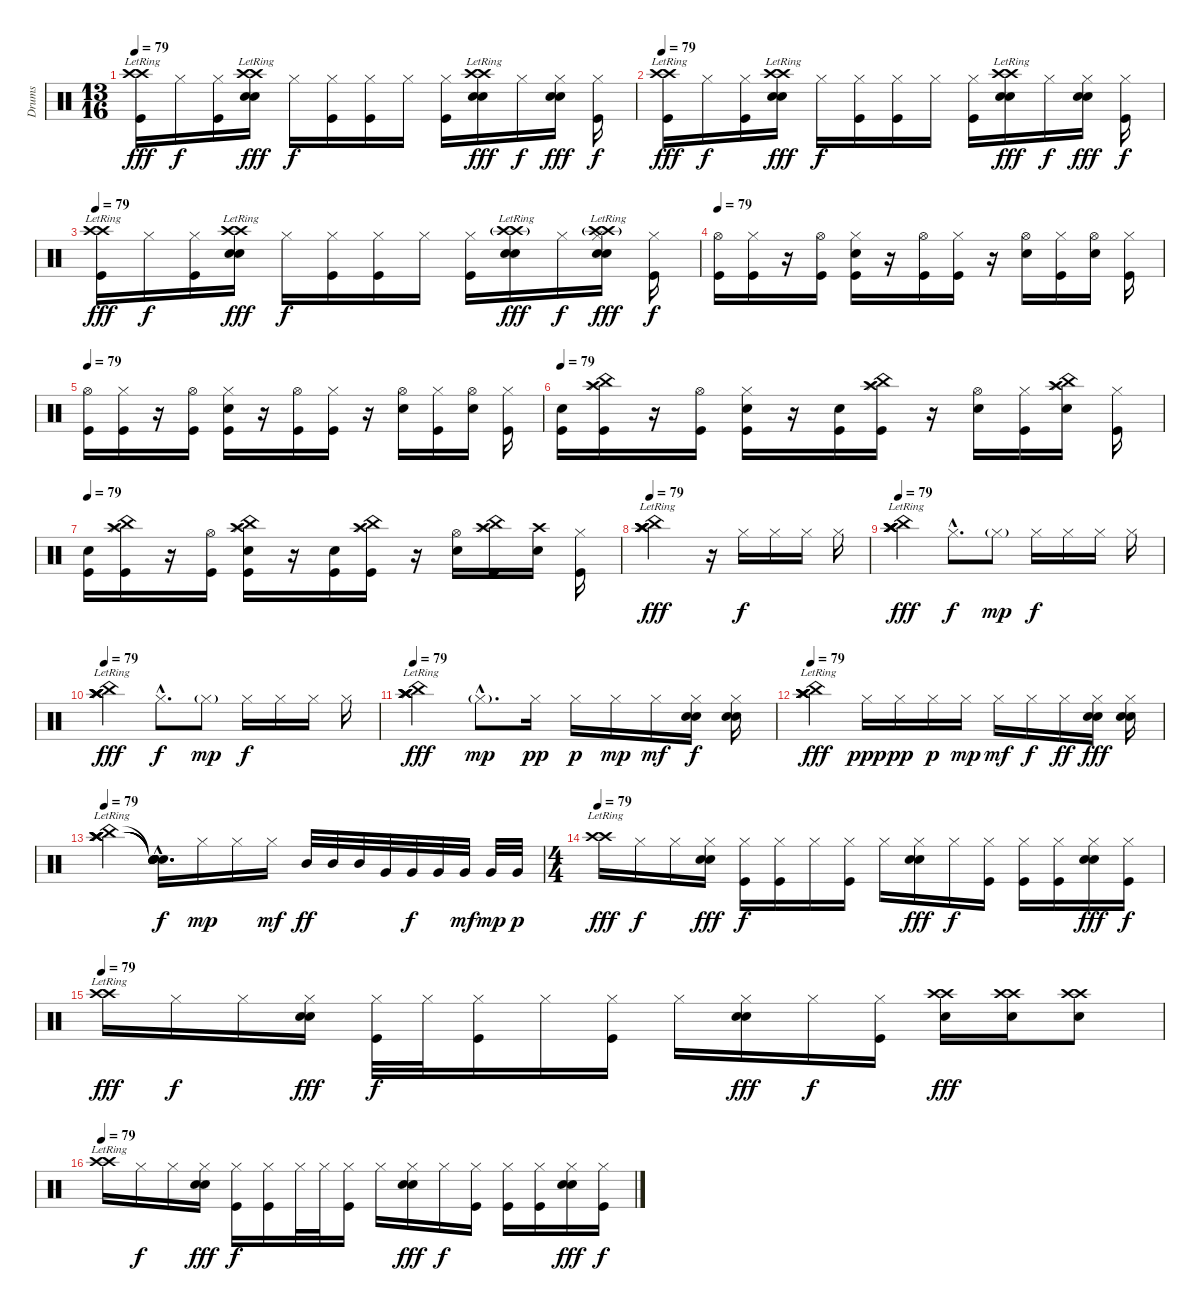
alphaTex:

\track ("Drums" "Drums") {instrument percussion}
\staff {score}
\articulation defaults
\ts (13 16)
\tempo 79
\clef neutral
\ks c
("Crash high (hit)"{lr} "Crash high (hit)"{lr} "Kick (hit)").16{dy fff volume 13} "Hi-Hat (closed)".16{dy f} ("Hi-Hat (closed)" "Kick (hit)").16 ("Crash high (hit)"{lr} "Crash high (hit)"{lr} "Electric Snare (hit)" "Electric Snare (hit)").16{dy fff} "Hi-Hat (closed)".16{dy f} ("Hi-Hat (closed)" "Kick (hit)").16 ("Hi-Hat (closed)" "Kick (hit)").16 "Hi-Hat (closed)".16 ("Hi-Hat (closed)" "Kick (hit)").16 ("Crash high (hit)"{lr} "Crash high (hit)"{lr} "Electric Snare (hit)" "Electric Snare (hit)").16{dy fff} "Hi-Hat (closed)".16{dy f} ("Hi-Hat (closed)" "Electric Snare (hit)" "Electric Snare (hit)").16{dy fff} ("Hi-Hat (closed)" "Kick (hit)").16{dy f} |
\tempo 79
("Crash high (hit)"{lr} "Crash high (hit)"{lr} "Kick (hit)").16{dy fff volume 13} "Hi-Hat (closed)".16{dy f} ("Hi-Hat (closed)" "Kick (hit)").16 ("Crash high (hit)"{lr} "Crash high (hit)"{lr} "Electric Snare (hit)" "Electric Snare (hit)").16{dy fff} "Hi-Hat (closed)".16{dy f} ("Hi-Hat (closed)" "Kick (hit)").16 ("Hi-Hat (closed)" "Kick (hit)").16 "Hi-Hat (closed)".16 ("Hi-Hat (closed)" "Kick (hit)").16 ("Crash high (hit)"{lr} "Crash high (hit)"{lr} "Electric Snare (hit)" "Electric Snare (hit)").16{dy fff} "Hi-Hat (closed)".16{dy f} ("Hi-Hat (closed)" "Electric Snare (hit)" "Electric Snare (hit)").16{dy fff} ("Hi-Hat (closed)" "Kick (hit)").16{dy f} |
\tempo 79
("Crash high (hit)"{lr} "Crash high (hit)"{lr} "Kick (hit)").16{dy fff volume 13} "Hi-Hat (closed)".16{dy f} ("Hi-Hat (closed)" "Kick (hit)").16 ("Crash high (hit)"{lr} "Crash high (hit)"{lr} "Electric Snare (hit)" "Electric Snare (hit)").16{dy fff} "Hi-Hat (closed)".16{dy f} ("Hi-Hat (closed)" "Kick (hit)").16 ("Hi-Hat (closed)" "Kick (hit)").16 "Hi-Hat (closed)".16 ("Hi-Hat (closed)" "Kick (hit)").16 ("Crash high (hit)"{g lr} "Crash high (hit)"{g lr} "Electric Snare (hit)" "Electric Snare (hit)").16{dy fff} "Hi-Hat (closed)".16{dy f} ("Crash high (hit)"{g lr} "Crash high (hit)"{g lr} "Hi-Hat (closed)" "Electric Snare (hit)" "Electric Snare (hit)").16{dy fff} ("Hi-Hat (closed)" "Kick (hit)").16{dy f} |
\tempo 79
("Hi-Hat (open)" "Kick (hit)").16 ("Hi-Hat (closed)" "Kick (hit)").16 r.16 ("Hi-Hat (open)" "Kick (hit)").16 ("Hi-Hat (closed)" "Electric Snare (hit)" "Kick (hit)").16 r.16 ("Hi-Hat (open)" "Kick (hit)").16 ("Hi-Hat (closed)" "Kick (hit)").16 r.16 ("Hi-Hat (open)" "Electric Snare (hit)").16 ("Hi-Hat (closed)" "Kick (hit)").16 ("Hi-Hat (open)" "Electric Snare (hit)").16 ("Hi-Hat (closed)" "Kick (hit)").16 |
\tempo 79
("Hi-Hat (open)" "Kick (hit)").16 ("Hi-Hat (closed)" "Kick (hit)").16 r.16 ("Hi-Hat (open)" "Kick (hit)").16 ("Hi-Hat (closed)" "Electric Snare (hit)" "Kick (hit)").16 r.16 ("Hi-Hat (open)" "Kick (hit)").16 ("Hi-Hat (closed)" "Kick (hit)").16 r.16 ("Hi-Hat (open)" "Electric Snare (hit)").16 ("Hi-Hat (closed)" "Kick (hit)").16 ("Hi-Hat (open)" "Electric Snare (hit)").16 ("Hi-Hat (closed)" "Kick (hit)").16 |
\tempo 79
("Electric Snare (hit)" "Kick (hit)").16 ("Splash (hit)" "China (hit)" "Crash high (hit)" "Kick (hit)").16 r.16 ("Hi-Hat (open)" "Kick (hit)").16 ("Hi-Hat (closed)" "Electric Snare (hit)" "Kick (hit)").16 r.16 ("Electric Snare (hit)" "Kick (hit)").16 ("Splash (hit)" "China (hit)" "Crash high (hit)" "Kick (hit)").16 r.16 ("Hi-Hat (open)" "Electric Snare (hit)").16 ("Hi-Hat (closed)" "Kick (hit)").16 ("Splash (hit)" "China (hit)" "Crash high (hit)" "Electric Snare (hit)").16 ("Hi-Hat (closed)" "Kick (hit)").16 |
\tempo 79
("Electric Snare (hit)" "Kick (hit)").16 ("Splash (hit)" "China (hit)" "Crash high (hit)" "Kick (hit)").16 r.16 ("Hi-Hat (open)" "Kick (hit)").16 ("Splash (hit)" "China (hit)" "Crash high (hit)" "Electric Snare (hit)" "Kick (hit)").16 r.16 ("Electric Snare (hit)" "Kick (hit)").16 ("Splash (hit)" "China (hit)" "Crash high (hit)" "Kick (hit)").16 r.16 ("Hi-Hat (open)" "Electric Snare (hit)").16 ("Splash (hit)" "China (hit)" "Crash high (hit)" "Kick (hit)").16 ("Crash high (hit)" "Electric Snare (hit)").16 ("Hi-Hat (closed)" "Kick (hit)").16 |
\tempo 79
("Crash high (hit)"{lr} "Crash high (hit)"{lr} "Crash high (hit)"{lr} "Crash high (hit)"{lr} "Splash (hit)"{lr} "China (hit)"{lr}).2{dy fff} r.16 "Hi-Hat (closed)".16{dy f} "Hi-Hat (closed)".16 "Hi-Hat (closed)".16 "Hi-Hat (closed)".16 |
\tempo 79
("Crash high (hit)"{lr} "Crash high (hit)"{lr} "Crash high (hit)"{lr} "Crash high (hit)"{lr} "Splash (hit)"{lr} "China (hit)"{lr}).4{dy fff} "Hi-Hat (closed)"{hac}.8{d dy f} "Hi-Hat (closed)"{g}.8{dy mp} "Hi-Hat (closed)".16{dy f} "Hi-Hat (closed)".16 "Hi-Hat (closed)".16 "Hi-Hat (closed)".16 |
\tempo 79
("Crash high (hit)"{lr} "Crash high (hit)"{lr} "Crash high (hit)"{lr} "Crash high (hit)"{lr} "Splash (hit)"{lr} "China (hit)"{lr}).4{dy fff} "Hi-Hat (closed)"{hac}.8{d dy f} "Hi-Hat (closed)"{g}.8{dy mp} "Hi-Hat (closed)".16{dy f} "Hi-Hat (closed)".16 "Hi-Hat (closed)".16 "Hi-Hat (closed)".16 |
\tempo 79
("Crash high (hit)"{lr} "Crash high (hit)"{lr} "Crash high (hit)"{lr} "Crash high (hit)"{lr} "Splash (hit)"{lr} "China (hit)"{lr}).4{dy fff} "Hi-Hat (closed)"{g hac}.8{d dy mp} "Hi-Hat (closed)".16{dy pp} "Hi-Hat (closed)".16{dy p} "Hi-Hat (closed)".16{dy mp} "Hi-Hat (closed)".16{dy mf} ("Hi-Hat (closed)" "Electric Snare (hit)" "Electric Snare (hit)").16{dy f} ("Hi-Hat (closed)" "Electric Snare (hit)" "Electric Snare (hit)").16 |
\tempo 79
("Crash high (hit)"{lr} "Crash high (hit)"{lr} "Crash high (hit)"{lr} "Crash high (hit)"{lr} "Splash (hit)"{lr} "China (hit)"{lr}).4{dy fff} "Hi-Hat (closed)".16{dy ppp} "Hi-Hat (closed)".16{dy pp} "Hi-Hat (closed)".16{dy p} "Hi-Hat (closed)".16{dy mp} "Hi-Hat (closed)".16{dy mf} "Hi-Hat (closed)".16{dy f} "Hi-Hat (closed)".16{dy ff} ("Hi-Hat (closed)" "Electric Snare (hit)" "Electric Snare (hit)").16{dy fff} ("Hi-Hat (closed)" "Electric Snare (hit)" "Electric Snare (hit)").16 |
\tempo 79
("Crash high (hit)"{lr} "Crash high (hit)"{lr} "Crash high (hit)"{lr} "Crash high (hit)"{lr} "Splash (hit)"{lr} "China (hit)"{lr}).4 ("Snare (hit)"{hac t} "Snare (hit)"{hac t} "Snare (hit)"{hac t} "Snare (hit)"{hac t} "Snare (hit)"{hac t} "Snare (hit)"{hac t}).16{d dy f} "Hi-Hat (closed)".16{dy mp} "Hi-Hat (closed)".16 "Hi-Hat (closed)".16{dy mf} "Mid Tom (hit)".32{dy ff} "Mid Tom (hit)".32 "Mid Tom (hit)".32 "Very Low Tom (hit)".32 "Very Low Tom (hit)".32{dy f} "Very Low Tom (hit)".32 "Very Low Tom (hit)".32{dy mf} "Very Low Tom (hit)".32{dy mp} "Very Low Tom (hit)".32{dy p} |
\ts (4 4)
\tempo 79
("Crash high (hit)"{lr} "Crash high (hit)"{lr}).16{dy fff} "Hi-Hat (closed)".16{dy f} "Hi-Hat (closed)".16 ("Hi-Hat (closed)" "Electric Snare (hit)" "Electric Snare (hit)").16{dy fff} ("Hi-Hat (closed)" "Kick (hit)").16{dy f} ("Hi-Hat (closed)" "Kick (hit)").16 "Hi-Hat (closed)".16 ("Hi-Hat (closed)" "Kick (hit)").16 "Hi-Hat (closed)".16 ("Hi-Hat (closed)" "Electric Snare (hit)" "Electric Snare (hit)").16{dy fff} "Hi-Hat (closed)".16{dy f} ("Hi-Hat (closed)" "Kick (hit)").16 ("Hi-Hat (closed)" "Kick (hit)").16 ("Hi-Hat (closed)" "Kick (hit)").16 ("Hi-Hat (closed)" "Electric Snare (hit)" "Electric Snare (hit)").16{dy fff} ("Hi-Hat (closed)" "Kick (hit)").16{dy f} |
\tempo 79
("Crash high (hit)"{lr} "Crash high (hit)"{lr}).16{dy fff} "Hi-Hat (closed)".16{dy f} "Hi-Hat (closed)".16 ("Hi-Hat (closed)" "Electric Snare (hit)" "Electric Snare (hit)").16{dy fff} ("Hi-Hat (closed)" "Kick (hit)").32{dy f} "Hi-Hat (closed)".32 ("Hi-Hat (closed)" "Kick (hit)").16 "Hi-Hat (closed)".16 ("Hi-Hat (closed)" "Kick (hit)").16 "Hi-Hat (closed)".16 ("Hi-Hat (closed)" "Electric Snare (hit)" "Electric Snare (hit)").16{dy fff} "Hi-Hat (closed)".16{dy f} ("Hi-Hat (closed)" "Kick (hit)").16 ("Crash high (hit)" "Crash high (hit)" "Electric Snare (hit)").16{dy fff} ("Crash high (hit)" "Crash high (hit)" "Electric Snare (hit)").16 ("Crash high (hit)" "Crash high (hit)" "Electric Snare (hit)").8 |
\tempo 79
("Crash high (hit)"{lr} "Crash high (hit)"{lr}).16 "Hi-Hat (closed)".16{dy f} "Hi-Hat (closed)".16 ("Hi-Hat (closed)" "Electric Snare (hit)" "Electric Snare (hit)").16{dy fff} ("Hi-Hat (closed)" "Kick (hit)").16{dy f} ("Hi-Hat (closed)" "Kick (hit)").16 "Hi-Hat (closed)".32 "Hi-Hat (closed)".32 ("Hi-Hat (closed)" "Kick (hit)").16 "Hi-Hat (closed)".16 ("Hi-Hat (closed)" "Electric Snare (hit)" "Electric Snare (hit)").16{dy fff} "Hi-Hat (closed)".16{dy f} ("Hi-Hat (closed)" "Kick (hit)").16 ("Hi-Hat (closed)" "Kick (hit)").16 ("Hi-Hat (closed)" "Kick (hit)").16 ("Hi-Hat (closed)" "Electric Snare (hit)" "Electric Snare (hit)").16{dy fff} ("Hi-Hat (closed)" "Kick (hit)").16{dy f}
